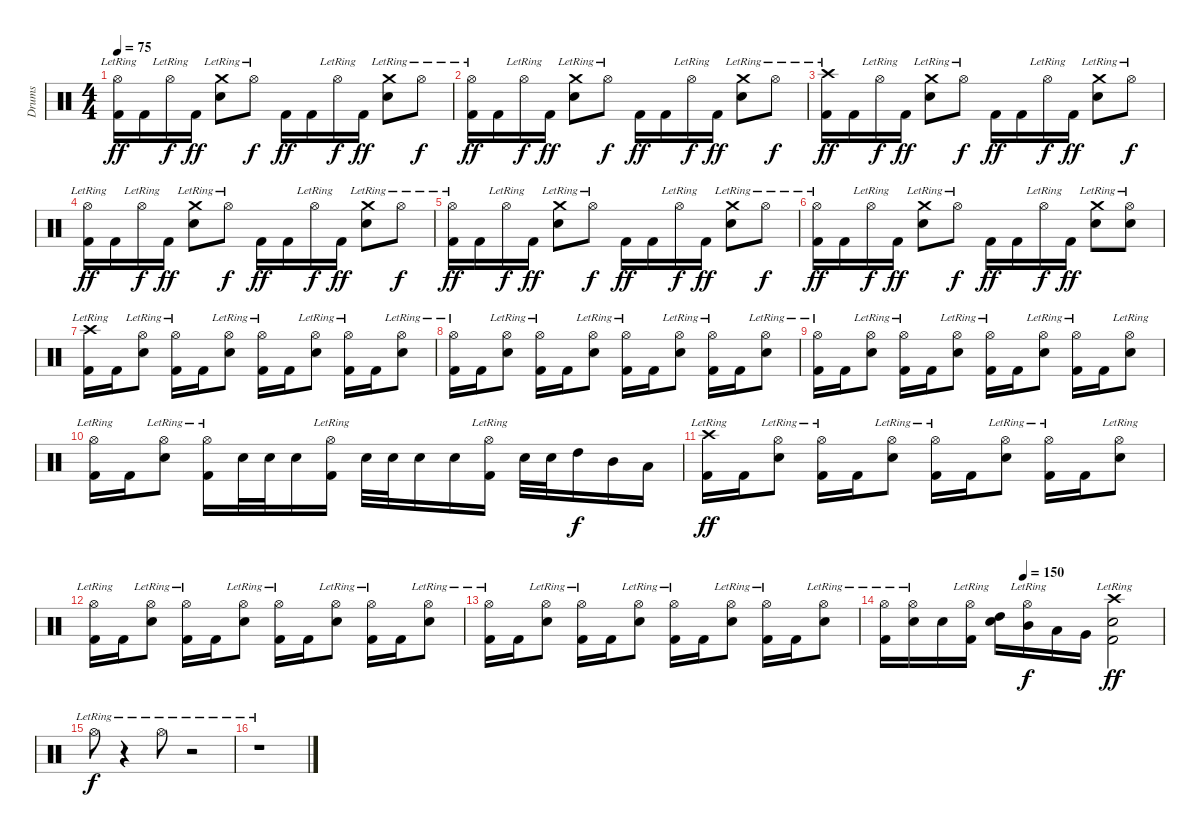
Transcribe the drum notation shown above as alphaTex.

\track ("Drums" "Drums") {instrument percussion}
\staff {score}
\articulation defaults
\ts (4 4)
\tempo 75
\clef neutral
\ks c
("Hi-Hat (open)"{lr} "Kick (hit) 2").16{dy ff} "Kick (hit) 2".16 "Hi-Hat (open)"{lr}.16{dy f} "Kick (hit) 2".16{dy ff} ("Crash medium (hit)"{lr} "Snare (hit) 2").8 "Hi-Hat (open)"{lr}.8{dy f} "Kick (hit) 2".16{dy ff} "Kick (hit) 2".16 "Hi-Hat (open)"{lr}.16{dy f} "Kick (hit) 2".16{dy ff} ("Crash medium (hit)"{lr} "Snare (hit) 2").8 "Hi-Hat (open)"{lr}.8{dy f} |
("Hi-Hat (open)"{lr} "Kick (hit) 2").16{dy ff} "Kick (hit) 2".16 "Hi-Hat (open)"{lr}.16{dy f} "Kick (hit) 2".16{dy ff} ("Crash medium (hit)"{lr} "Snare (hit) 2").8 "Hi-Hat (open)"{lr}.8{dy f} "Kick (hit) 2".16{dy ff} "Kick (hit) 2".16 "Hi-Hat (open)"{lr}.16{dy f} "Kick (hit) 2".16{dy ff} ("Crash medium (hit)"{lr} "Snare (hit) 2").8 "Hi-Hat (open)"{lr}.8{dy f} |
("Crash high (hit)"{lr} "Kick (hit) 2").16{dy ff} "Kick (hit) 2".16 "Hi-Hat (open)"{lr}.16{dy f} "Kick (hit) 2".16{dy ff} ("Crash medium (hit)"{lr} "Snare (hit) 2").8 "Hi-Hat (open)"{lr}.8{dy f} "Kick (hit) 2".16{dy ff} "Kick (hit) 2".16 "Hi-Hat (open)"{lr}.16{dy f} "Kick (hit) 2".16{dy ff} ("Crash medium (hit)"{lr} "Snare (hit) 2").8 "Hi-Hat (open)"{lr}.8{dy f} |
("Hi-Hat (open)"{lr} "Kick (hit) 2").16{dy ff} "Kick (hit) 2".16 "Hi-Hat (open)"{lr}.16{dy f} "Kick (hit) 2".16{dy ff} ("Crash medium (hit)"{lr} "Snare (hit) 2").8 "Hi-Hat (open)"{lr}.8{dy f} "Kick (hit) 2".16{dy ff} "Kick (hit) 2".16 "Hi-Hat (open)"{lr}.16{dy f} "Kick (hit) 2".16{dy ff} ("Crash medium (hit)"{lr} "Snare (hit) 2").8 "Hi-Hat (open)"{lr}.8{dy f} |
("Hi-Hat (open)"{lr} "Kick (hit) 2").16{dy ff} "Kick (hit) 2".16 "Hi-Hat (open)"{lr}.16{dy f} "Kick (hit) 2".16{dy ff} ("Crash medium (hit)"{lr} "Snare (hit) 2").8 "Hi-Hat (open)"{lr}.8{dy f} "Kick (hit) 2".16{dy ff} "Kick (hit) 2".16 "Hi-Hat (open)"{lr}.16{dy f} "Kick (hit) 2".16{dy ff} ("Crash medium (hit)"{lr} "Snare (hit) 2").8 "Hi-Hat (open)"{lr}.8{dy f} |
("Hi-Hat (open)"{lr} "Kick (hit) 2").16{dy ff} "Kick (hit) 2".16 "Hi-Hat (open)"{lr}.16{dy f} "Kick (hit) 2".16{dy ff} ("Crash medium (hit)"{lr} "Snare (hit) 2").8 "Hi-Hat (open)"{lr}.8{dy f} "Kick (hit) 2".16{dy ff} "Kick (hit) 2".16 "Hi-Hat (open)"{lr}.16{dy f} "Kick (hit) 2".16{dy ff} ("Crash medium (hit)"{lr} "Snare (hit) 2").8 ("Hi-Hat (open)"{lr} "Snare (hit) 2").8 |
("Crash high (hit)"{lr} "Kick (hit) 2").16 "Kick (hit) 2".16 ("Hi-Hat (open)"{lr} "Snare (hit) 2").8 ("Hi-Hat (open)"{lr} "Kick (hit) 2").16 "Kick (hit) 2".16 ("Hi-Hat (open)"{lr} "Snare (hit) 2").8 ("Hi-Hat (open)"{lr} "Kick (hit) 2").16 "Kick (hit) 2".16 ("Hi-Hat (open)"{lr} "Snare (hit) 2").8 ("Hi-Hat (open)"{lr} "Kick (hit) 2").16 "Kick (hit) 2".16 ("Hi-Hat (open)"{lr} "Snare (hit) 2").8 |
("Hi-Hat (open)"{lr} "Kick (hit) 2").16 "Kick (hit) 2".16 ("Hi-Hat (open)"{lr} "Snare (hit) 2").8 ("Hi-Hat (open)"{lr} "Kick (hit) 2").16 "Kick (hit) 2".16 ("Hi-Hat (open)"{lr} "Snare (hit) 2").8 ("Hi-Hat (open)"{lr} "Kick (hit) 2").16 "Kick (hit) 2".16 ("Hi-Hat (open)"{lr} "Snare (hit) 2").8 ("Hi-Hat (open)"{lr} "Kick (hit) 2").16 "Kick (hit) 2".16 ("Hi-Hat (open)"{lr} "Snare (hit) 2").8 |
("Hi-Hat (open)"{lr} "Kick (hit) 2").16 "Kick (hit) 2".16 ("Hi-Hat (open)"{lr} "Snare (hit) 2").8 ("Hi-Hat (open)"{lr} "Kick (hit) 2").16 "Kick (hit) 2".16 ("Hi-Hat (open)"{lr} "Snare (hit) 2").8 ("Hi-Hat (open)"{lr} "Kick (hit) 2").16 "Kick (hit) 2".16 ("Hi-Hat (open)"{lr} "Snare (hit) 2").8 ("Hi-Hat (open)"{lr} "Kick (hit) 2").16 "Kick (hit) 2".16 ("Hi-Hat (open)"{lr} "Snare (hit) 2").8 |
("Hi-Hat (open)"{lr} "Kick (hit) 2").16 "Kick (hit) 2".16 ("Hi-Hat (open)"{lr} "Snare (hit) 2").8 ("Hi-Hat (open)"{lr} "Kick (hit) 2").16 "Snare (hit) 2".32 "Snare (hit) 2".32 "Snare (hit) 2".16 ("Hi-Hat (open)"{lr} "Kick (hit) 2").16 "Snare (hit) 2".32 "Snare (hit) 2".32 "Snare (hit) 2".16 "Snare (hit) 2".16 ("Hi-Hat (open)"{lr} "Kick (hit) 2").16 "Snare (hit) 2".32 "Snare (hit) 2".32 "High Tom (hit)".16{dy f} "Mid Tom (hit)".16 "Low Tom (hit)".16 |
("Crash high (hit)"{lr} "Kick (hit) 2").16{dy ff} "Kick (hit) 2".16 ("Hi-Hat (open)"{lr} "Snare (hit) 2").8 ("Hi-Hat (open)"{lr} "Kick (hit) 2").16 "Kick (hit) 2".16 ("Hi-Hat (open)"{lr} "Snare (hit) 2").8 ("Hi-Hat (open)"{lr} "Kick (hit) 2").16 "Kick (hit) 2".16 ("Hi-Hat (open)"{lr} "Snare (hit) 2").8 ("Hi-Hat (open)"{lr} "Kick (hit) 2").16 "Kick (hit) 2".16 ("Hi-Hat (open)"{lr} "Snare (hit) 2").8 |
("Hi-Hat (open)"{lr} "Kick (hit) 2").16 "Kick (hit) 2".16 ("Hi-Hat (open)"{lr} "Snare (hit) 2").8 ("Hi-Hat (open)"{lr} "Kick (hit) 2").16 "Kick (hit) 2".16 ("Hi-Hat (open)"{lr} "Snare (hit) 2").8 ("Hi-Hat (open)"{lr} "Kick (hit) 2").16 "Kick (hit) 2".16 ("Hi-Hat (open)"{lr} "Snare (hit) 2").8 ("Hi-Hat (open)"{lr} "Kick (hit) 2").16 "Kick (hit) 2".16 ("Hi-Hat (open)"{lr} "Snare (hit) 2").8 |
("Hi-Hat (open)"{lr} "Kick (hit) 2").16 "Kick (hit) 2".16 ("Hi-Hat (open)"{lr} "Snare (hit) 2").8 ("Hi-Hat (open)"{lr} "Kick (hit) 2").16 "Kick (hit) 2".16 ("Hi-Hat (open)"{lr} "Snare (hit) 2").8 ("Hi-Hat (open)"{lr} "Kick (hit) 2").16 "Kick (hit) 2".16 ("Hi-Hat (open)"{lr} "Snare (hit) 2").8 ("Hi-Hat (open)"{lr} "Kick (hit) 2").16 "Kick (hit) 2".16 ("Hi-Hat (open)"{lr} "Snare (hit) 2").8 |
\tempo (150 0.5)
("Hi-Hat (open)"{lr} "Kick (hit) 2").16 ("Hi-Hat (open)"{lr} "Snare (hit) 2").16 "Snare (hit) 2".16 ("Hi-Hat (open)"{lr} "Kick (hit) 2").16 ("Snare (hit) 2" "High Tom (hit)").16 ("Hi-Hat (open)"{lr} "Mid Tom (hit)").16{dy f} "Low Tom (hit)".16 "Very Low Tom (hit)".16 ("Crash high (hit)"{lr} "Snare (hit) 2" "Kick (hit) 2").2{dy ff} |
"Hi-Hat (open)"{lr}.8{dy f} r.4 "Hi-Hat (open)"{lr}.8 r.2 |
r.1
